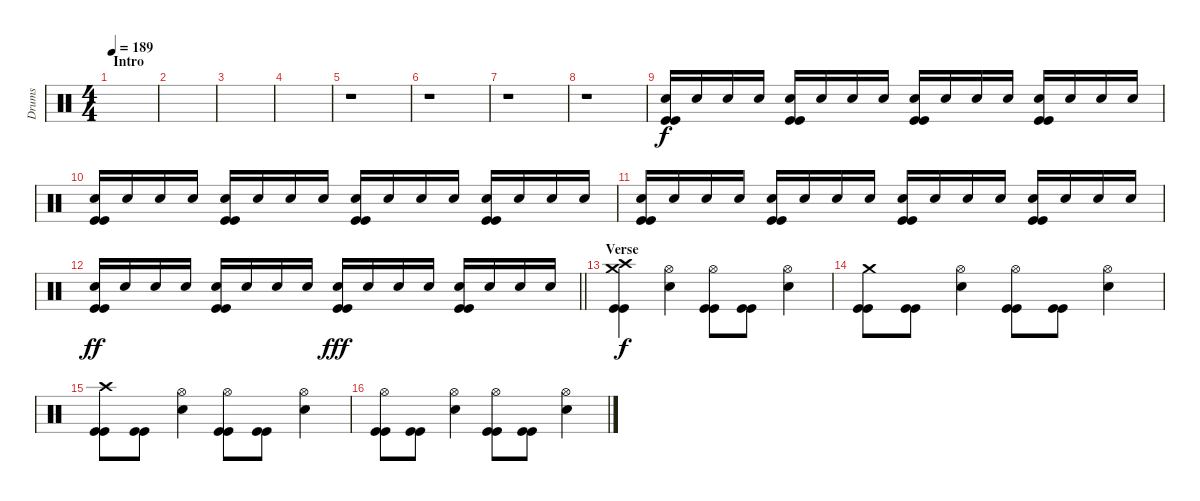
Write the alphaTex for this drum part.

\track ("Drums" "Drums") {instrument percussion}
\staff {score}
\articulation defaults
\ts (4 4)
\section ("" "Intro")
\tempo 189
\clef neutral
\ks c
|
|
|
|
r.1 |
r.1 |
r.1 |
r.1 |
("Electric Snare (hit)" "Kick (hit)" "Kick (hit)").16 "Electric Snare (hit)".16 "Electric Snare (hit)".16 "Electric Snare (hit)".16 ("Electric Snare (hit)" "Kick (hit)" "Kick (hit)").16 "Electric Snare (hit)".16 "Electric Snare (hit)".16 "Electric Snare (hit)".16 ("Electric Snare (hit)" "Kick (hit)" "Kick (hit)").16 "Electric Snare (hit)".16 "Electric Snare (hit)".16 "Electric Snare (hit)".16 ("Electric Snare (hit)" "Kick (hit)" "Kick (hit)").16 "Electric Snare (hit)".16 "Electric Snare (hit)".16 "Electric Snare (hit)".16 |
("Electric Snare (hit)" "Kick (hit)" "Kick (hit)").16 "Electric Snare (hit)".16 "Electric Snare (hit)".16 "Electric Snare (hit)".16 ("Electric Snare (hit)" "Kick (hit)" "Kick (hit)").16 "Electric Snare (hit)".16 "Electric Snare (hit)".16 "Electric Snare (hit)".16 ("Electric Snare (hit)" "Kick (hit)" "Kick (hit)").16 "Electric Snare (hit)".16 "Electric Snare (hit)".16 "Electric Snare (hit)".16 ("Electric Snare (hit)" "Kick (hit)" "Kick (hit)").16 "Electric Snare (hit)".16 "Electric Snare (hit)".16 "Electric Snare (hit)".16 |
("Electric Snare (hit)" "Kick (hit)" "Kick (hit)").16{dy f} "Electric Snare (hit)".16 "Electric Snare (hit)".16 "Electric Snare (hit)".16 ("Electric Snare (hit)" "Kick (hit)" "Kick (hit)").16 "Electric Snare (hit)".16 "Electric Snare (hit)".16 "Electric Snare (hit)".16 ("Electric Snare (hit)" "Kick (hit)" "Kick (hit)").16 "Electric Snare (hit)".16 "Electric Snare (hit)".16 "Electric Snare (hit)".16 ("Electric Snare (hit)" "Kick (hit)" "Kick (hit)").16 "Electric Snare (hit)".16 "Electric Snare (hit)".16 "Electric Snare (hit)".16 |
\barLineRight lightlight
("Electric Snare (hit)" "Kick (hit)" "Kick (hit)").16{dy ff} "Electric Snare (hit)".16 "Electric Snare (hit)".16 "Electric Snare (hit)".16 ("Electric Snare (hit)" "Kick (hit)" "Kick (hit)").16 "Electric Snare (hit)".16 "Electric Snare (hit)".16 "Electric Snare (hit)".16 ("Electric Snare (hit)" "Kick (hit)" "Kick (hit)").16{dy fff} "Electric Snare (hit)".16 "Electric Snare (hit)".16 "Electric Snare (hit)".16 ("Electric Snare (hit)" "Kick (hit)" "Kick (hit)").16 "Electric Snare (hit)".16 "Electric Snare (hit)".16 "Electric Snare (hit)".16 |
\section ("" "Verse")
("Crash high (hit)" "Crash medium (hit)" "Kick (hit)" "Kick (hit)").4{dy f} ("Hi-Hat (open)" "Electric Snare (hit)").4 ("Hi-Hat (open)" "Kick (hit)" "Kick (hit)").8 ("Kick (hit)" "Kick (hit)").8 ("Hi-Hat (open)" "Electric Snare (hit)").4 |
("Crash medium (hit)" "Kick (hit)" "Kick (hit)").8 ("Kick (hit)" "Kick (hit)").8 ("Hi-Hat (open)" "Electric Snare (hit)").4 ("Hi-Hat (open)" "Kick (hit)" "Kick (hit)").8 ("Kick (hit)" "Kick (hit)").8 ("Hi-Hat (open)" "Electric Snare (hit)").4 |
("Crash high (hit)" "Kick (hit)" "Kick (hit)").8 ("Kick (hit)" "Kick (hit)").8 ("Hi-Hat (open)" "Electric Snare (hit)").4 ("Hi-Hat (open)" "Kick (hit)" "Kick (hit)").8 ("Kick (hit)" "Kick (hit)").8 ("Hi-Hat (open)" "Electric Snare (hit)").4 |
("Hi-Hat (open)" "Kick (hit)" "Kick (hit)").8 ("Kick (hit)" "Kick (hit)").8 ("Hi-Hat (open)" "Electric Snare (hit)").4 ("Hi-Hat (open)" "Kick (hit)" "Kick (hit)").8 ("Kick (hit)" "Kick (hit)").8 ("Hi-Hat (open)" "Electric Snare (hit)").4
